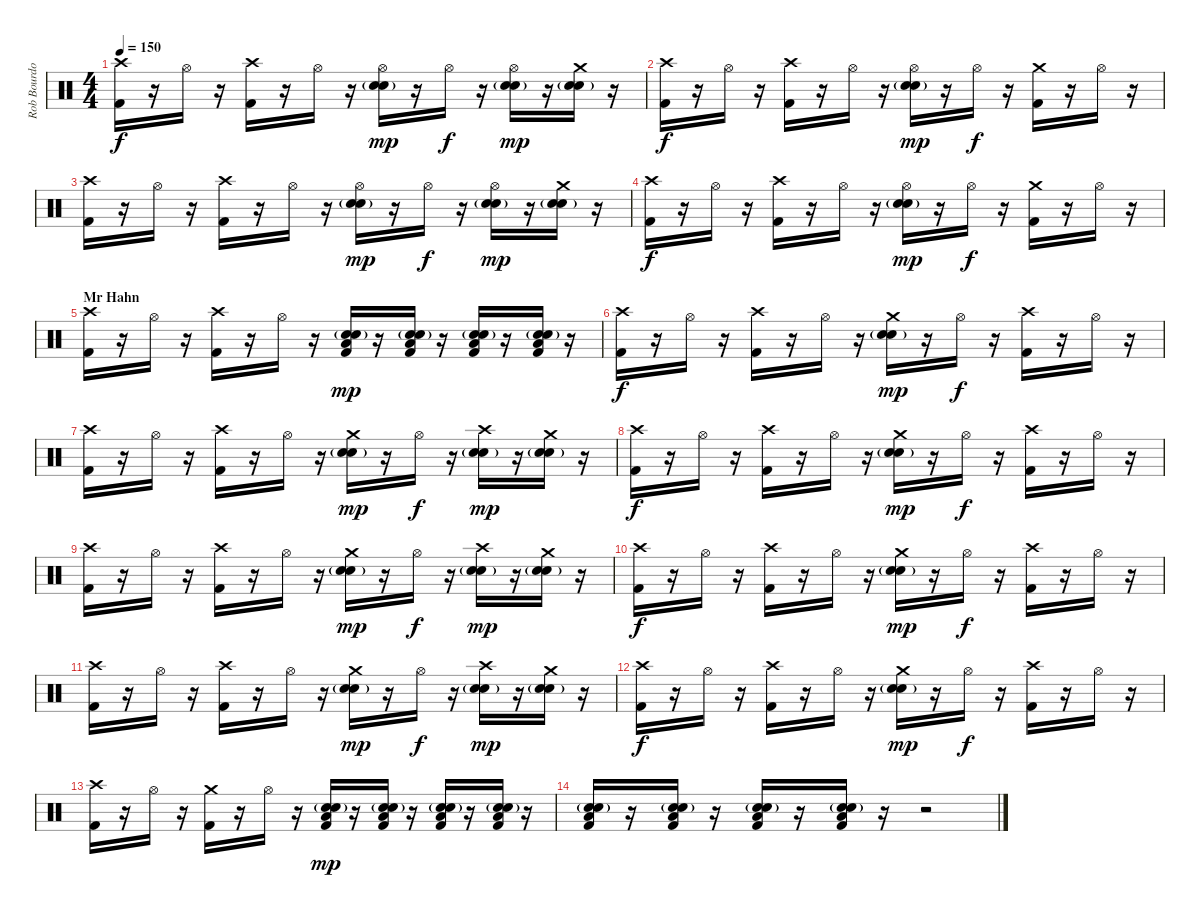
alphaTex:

\track ("Rob Bourdon" "Rob Bourdo") {instrument percussion}
\staff {score}
\articulation defaults
\ts (4 4)
\tempo 150
\clef neutral
\ks c
("Crash high (hit)" "Kick (hit) 2").16{dy f} r.16 "Hi-Hat (open)".16 r.16 ("Crash high (hit)" "Kick (hit) 2").16 r.16 "Hi-Hat (open)".16 r.16 ("Hi-Hat (open)" "Snare (hit) 2"{g} "Snare (hit) 2").16{dy mp} r.16 "Hi-Hat (open)".16{dy f} r.16 ("Hi-Hat (open)" "Snare (hit) 2"{g} "Snare (hit) 2").16{dy mp} r.16 ("Crash medium (hit)" "Snare (hit) 2"{g} "Snare (hit) 2").16 r.16 |
("Crash high (hit)" "Kick (hit) 2").16{dy f} r.16 "Hi-Hat (open)".16 r.16 ("Crash high (hit)" "Kick (hit) 2").16 r.16 "Hi-Hat (open)".16 r.16 ("Hi-Hat (open)" "Snare (hit) 2"{g} "Snare (hit) 2").16{dy mp} r.16 "Hi-Hat (open)".16{dy f} r.16 ("Crash medium (hit)" "Kick (hit) 2").16 r.16 "Hi-Hat (open)".16 r.16 |
("Crash high (hit)" "Kick (hit) 2").16 r.16 "Hi-Hat (open)".16 r.16 ("Crash high (hit)" "Kick (hit) 2").16 r.16 "Hi-Hat (open)".16 r.16 ("Hi-Hat (open)" "Snare (hit) 2"{g} "Snare (hit) 2").16{dy mp} r.16 "Hi-Hat (open)".16{dy f} r.16 ("Hi-Hat (open)" "Snare (hit) 2"{g} "Snare (hit) 2").16{dy mp} r.16 ("Crash medium (hit)" "Snare (hit) 2"{g} "Snare (hit) 2").16 r.16 |
("Crash high (hit)" "Kick (hit) 2").16{dy f} r.16 "Hi-Hat (open)".16 r.16 ("Crash high (hit)" "Kick (hit) 2").16 r.16 "Hi-Hat (open)".16 r.16 ("Hi-Hat (open)" "Snare (hit) 2"{g} "Snare (hit) 2").16{dy mp} r.16 "Hi-Hat (open)".16{dy f} r.16 ("Crash medium (hit)" "Kick (hit) 2").16 r.16 "Hi-Hat (open)".16 r.16 |
\section ("" "Mr Hahn")
("Crash high (hit)" "Kick (hit) 2").16 r.16 "Hi-Hat (open)".16 r.16 ("Crash high (hit)" "Kick (hit) 2").16 r.16 "Hi-Hat (open)".16 r.16 ("Low Tom (hit)" "Snare (hit) 2"{g} "Snare (hit) 2" "Kick (hit) 2").16{dy mp} r.16 ("Low Tom (hit)" "Snare (hit) 2"{g} "Snare (hit) 2" "Kick (hit) 2").16 r.16 ("Low Tom (hit)" "Snare (hit) 2"{g} "Snare (hit) 2" "Kick (hit) 2").16 r.16 ("Low Tom (hit)" "Snare (hit) 2"{g} "Snare (hit) 2" "Kick (hit) 2").16 r.16 |
("Crash high (hit)" "Kick (hit) 2").16{dy f} r.16 "Hi-Hat (open)".16 r.16 ("Crash high (hit)" "Kick (hit) 2").16 r.16 "Hi-Hat (open)".16 r.16 ("Crash medium (hit)" "Snare (hit) 2"{g} "Snare (hit) 2").16{dy mp} r.16 "Hi-Hat (open)".16{dy f} r.16 ("Crash high (hit)" "Kick (hit) 2").16 r.16 "Hi-Hat (open)".16 r.16 |
("Crash high (hit)" "Kick (hit) 2").16 r.16 "Hi-Hat (open)".16 r.16 ("Crash high (hit)" "Kick (hit) 2").16 r.16 "Hi-Hat (open)".16 r.16 ("Crash medium (hit)" "Snare (hit) 2"{g} "Snare (hit) 2").16{dy mp} r.16 "Hi-Hat (open)".16{dy f} r.16 ("Crash high (hit)" "Snare (hit) 2"{g} "Snare (hit) 2").16{dy mp} r.16 ("Crash medium (hit)" "Snare (hit) 2"{g} "Snare (hit) 2").16 r.16 |
("Crash high (hit)" "Kick (hit) 2").16{dy f} r.16 "Hi-Hat (open)".16 r.16 ("Crash high (hit)" "Kick (hit) 2").16 r.16 "Hi-Hat (open)".16 r.16 ("Crash medium (hit)" "Snare (hit) 2"{g} "Snare (hit) 2").16{dy mp} r.16 "Hi-Hat (open)".16{dy f} r.16 ("Crash high (hit)" "Kick (hit) 2").16 r.16 "Hi-Hat (open)".16 r.16 |
("Crash high (hit)" "Kick (hit) 2").16 r.16 "Hi-Hat (open)".16 r.16 ("Crash high (hit)" "Kick (hit) 2").16 r.16 "Hi-Hat (open)".16 r.16 ("Crash medium (hit)" "Snare (hit) 2"{g} "Snare (hit) 2").16{dy mp} r.16 "Hi-Hat (open)".16{dy f} r.16 ("Crash high (hit)" "Snare (hit) 2"{g} "Snare (hit) 2").16{dy mp} r.16 ("Crash medium (hit)" "Snare (hit) 2"{g} "Snare (hit) 2").16 r.16 |
("Crash high (hit)" "Kick (hit) 2").16{dy f} r.16 "Hi-Hat (open)".16 r.16 ("Crash high (hit)" "Kick (hit) 2").16 r.16 "Hi-Hat (open)".16 r.16 ("Crash medium (hit)" "Snare (hit) 2"{g} "Snare (hit) 2").16{dy mp} r.16 "Hi-Hat (open)".16{dy f} r.16 ("Crash high (hit)" "Kick (hit) 2").16 r.16 "Hi-Hat (open)".16 r.16 |
("Crash high (hit)" "Kick (hit) 2").16 r.16 "Hi-Hat (open)".16 r.16 ("Crash high (hit)" "Kick (hit) 2").16 r.16 "Hi-Hat (open)".16 r.16 ("Crash medium (hit)" "Snare (hit) 2"{g} "Snare (hit) 2").16{dy mp} r.16 "Hi-Hat (open)".16{dy f} r.16 ("Crash high (hit)" "Snare (hit) 2"{g} "Snare (hit) 2").16{dy mp} r.16 ("Crash medium (hit)" "Snare (hit) 2"{g} "Snare (hit) 2").16 r.16 |
("Crash high (hit)" "Kick (hit) 2").16{dy f} r.16 "Hi-Hat (open)".16 r.16 ("Crash high (hit)" "Kick (hit) 2").16 r.16 "Hi-Hat (open)".16 r.16 ("Crash medium (hit)" "Snare (hit) 2"{g} "Snare (hit) 2").16{dy mp} r.16 "Hi-Hat (open)".16{dy f} r.16 ("Crash high (hit)" "Kick (hit) 2").16 r.16 "Hi-Hat (open)".16 r.16 |
("Crash high (hit)" "Kick (hit) 2").16 r.16 "Hi-Hat (open)".16 r.16 ("Crash medium (hit)" "Kick (hit) 2").16 r.16 "Hi-Hat (open)".16 r.16 ("Low Tom (hit)" "Snare (hit) 2"{g} "Snare (hit) 2" "Kick (hit) 2").16{dy mp} r.16 ("Low Tom (hit)" "Snare (hit) 2"{g} "Snare (hit) 2" "Kick (hit) 2").16 r.16 ("Low Tom (hit)" "Snare (hit) 2"{g} "Snare (hit) 2" "Kick (hit) 2").16 r.16 ("Low Tom (hit)" "Snare (hit) 2"{g} "Snare (hit) 2" "Kick (hit) 2").16 r.16 |
("Low Tom (hit)" "Snare (hit) 2"{g} "Snare (hit) 2" "Kick (hit) 2").16 r.16 ("Low Tom (hit)" "Snare (hit) 2"{g} "Snare (hit) 2" "Kick (hit) 2").16 r.16 ("Low Tom (hit)" "Snare (hit) 2"{g} "Snare (hit) 2" "Kick (hit) 2").16 r.16 ("Low Tom (hit)" "Snare (hit) 2"{g} "Snare (hit) 2" "Kick (hit) 2").16 r.16 r.2
